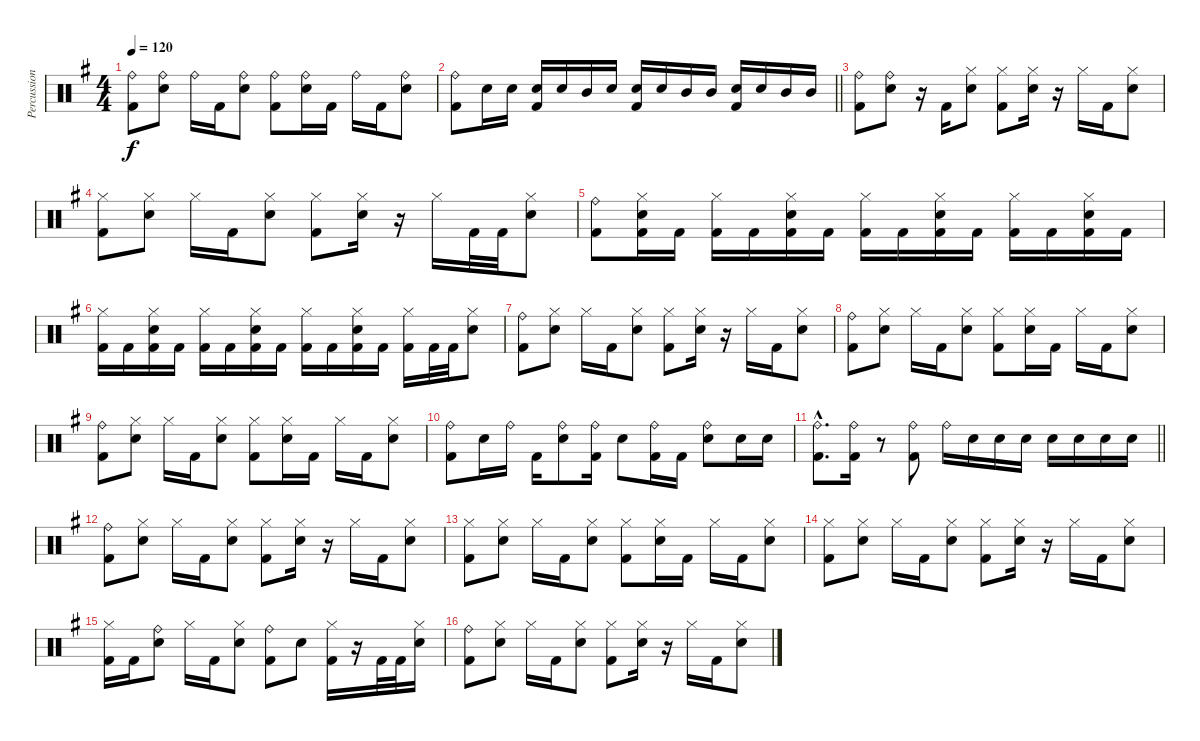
\track ("Percussion" "Percussion") {instrument percussion}
\staff {score}
\articulation defaults
\ts (4 4)
\tempo 120
\clef neutral
\ks eminor
("Ride (bell)" "Kick (hit) 2").8{dy f} ("Ride (bell)" "Snare (hit) 2").8 "Ride (bell)".16 "Kick (hit) 2".16 ("Ride (bell)" "Snare (hit) 2").8 ("Ride (bell)" "Kick (hit) 2").8 ("Ride (bell)" "Snare (hit) 2").16 "Kick (hit) 2".16 "Ride (bell)".16 "Kick (hit) 2".16 ("Ride (bell)" "Snare (hit) 2").8 |
\barLineRight lightlight
("Ride (bell)" "Kick (hit) 2").8 "Snare (hit) 2".16 "Snare (hit) 2".16 ("Snare (hit) 2" "Kick (hit) 2").16 "Snare (hit) 2".16 "Mid Tom (hit)".16 "Snare (hit) 2".16 ("Snare (hit) 2" "Kick (hit) 2").16 "Snare (hit) 2".16 "Mid Tom (hit)".16 "Mid Tom (hit)".16 ("Snare (hit) 2" "Kick (hit) 2").16 "Snare (hit) 2".16 "Mid Tom (hit)".16 "Mid Tom (hit)".16 |
("Ride (bell)" "Kick (hit) 2").8 ("Ride (bell)" "Snare (hit) 2").8 r.16 "Kick (hit) 2".16 ("Hi-Hat (closed)" "Snare (hit) 2").8 ("Hi-Hat (closed)" "Kick (hit) 2").8 ("Hi-Hat (closed)" "Snare (hit) 2").16 r.16 "Hi-Hat (closed)".16 "Kick (hit) 2".16 ("Hi-Hat (closed)" "Snare (hit) 2").8 |
("Hi-Hat (closed)" "Kick (hit) 2").8 ("Hi-Hat (closed)" "Snare (hit) 2").8 "Hi-Hat (closed)".16 "Kick (hit) 2".16 ("Hi-Hat (closed)" "Snare (hit) 2").8 ("Hi-Hat (closed)" "Kick (hit) 2").8 ("Hi-Hat (closed)" "Snare (hit) 2").16 r.16 "Hi-Hat (closed)".16 "Kick (hit) 2".32 "Kick (hit) 2".32 ("Hi-Hat (closed)" "Snare (hit) 2").8 |
("Ride (bell)" "Kick (hit) 2").8 ("Hi-Hat (closed)" "Snare (hit) 2" "Kick (hit) 2").16 "Kick (hit) 2".16 ("Hi-Hat (closed)" "Kick (hit) 2").16 "Kick (hit) 2".16 ("Hi-Hat (closed)" "Snare (hit) 2" "Kick (hit) 2").16 "Kick (hit) 2".16 ("Hi-Hat (closed)" "Kick (hit) 2").16 "Kick (hit) 2".16 ("Hi-Hat (closed)" "Snare (hit) 2" "Kick (hit) 2").16 "Kick (hit) 2".16 ("Hi-Hat (closed)" "Kick (hit) 2").16 "Kick (hit) 2".16 ("Hi-Hat (closed)" "Snare (hit) 2" "Kick (hit) 2").16 "Kick (hit) 2".16 |
("Hi-Hat (closed)" "Kick (hit) 2").16 "Kick (hit) 2".16 ("Hi-Hat (closed)" "Snare (hit) 2" "Kick (hit) 2").16 "Kick (hit) 2".16 ("Hi-Hat (closed)" "Kick (hit) 2").16 "Kick (hit) 2".16 ("Hi-Hat (closed)" "Snare (hit) 2" "Kick (hit) 2").16 "Kick (hit) 2".16 ("Hi-Hat (closed)" "Kick (hit) 2").16 "Kick (hit) 2".16 ("Hi-Hat (closed)" "Snare (hit) 2" "Kick (hit) 2").16 "Kick (hit) 2".16 ("Hi-Hat (closed)" "Kick (hit) 2").16 "Kick (hit) 2".32 "Kick (hit) 2".32 ("Hi-Hat (closed)" "Snare (hit) 2").8 |
("Ride (bell)" "Kick (hit) 2").8 ("Hi-Hat (closed)" "Snare (hit) 2").8 "Hi-Hat (closed)".16 "Kick (hit) 2".16 ("Hi-Hat (closed)" "Snare (hit) 2").8 ("Hi-Hat (closed)" "Kick (hit) 2").8 ("Hi-Hat (closed)" "Snare (hit) 2").16 r.16 "Hi-Hat (closed)".16 "Kick (hit) 2".16 ("Hi-Hat (closed)" "Snare (hit) 2").8 |
("Ride (bell)" "Kick (hit) 2").8 ("Hi-Hat (closed)" "Snare (hit) 2").8 "Hi-Hat (closed)".16 "Kick (hit) 2".16 ("Hi-Hat (closed)" "Snare (hit) 2").8 ("Hi-Hat (closed)" "Kick (hit) 2").8 ("Hi-Hat (closed)" "Snare (hit) 2").16 "Kick (hit) 2".16 "Hi-Hat (closed)".16 "Kick (hit) 2".16 ("Hi-Hat (closed)" "Snare (hit) 2").8 |
("Ride (bell)" "Kick (hit) 2").8 ("Hi-Hat (closed)" "Snare (hit) 2").8 "Hi-Hat (closed)".16 "Kick (hit) 2".16 ("Hi-Hat (closed)" "Snare (hit) 2").8 ("Hi-Hat (closed)" "Kick (hit) 2").8 ("Hi-Hat (closed)" "Snare (hit) 2").16 "Kick (hit) 2".16 "Hi-Hat (closed)".16 "Kick (hit) 2".16 ("Hi-Hat (closed)" "Snare (hit) 2").8 |
("Ride (bell)" "Kick (hit) 2").8 "Snare (hit) 2".16 "Ride (bell)".16 "Kick (hit) 2".16 ("Ride (bell)" "Snare (hit) 2").8 ("Ride (bell)" "Kick (hit) 2").16 "Snare (hit) 2".8 ("Ride (bell)" "Kick (hit) 2").16 "Kick (hit) 2".16 ("Ride (bell)" "Snare (hit) 2").8 "Snare (hit) 2".16 "Snare (hit) 2".16 |
\barLineRight lightlight
("Ride (bell)"{hac} "Kick (hit) 2"{hac}).8{d} ("Ride (bell)" "Kick (hit) 2").16 r.8 ("Ride (bell)" "Kick (hit) 2").8 "Ride (bell)".16 "Snare (hit) 2".16 "Snare (hit) 2".16 "Snare (hit) 2".16 "Snare (hit) 2".16 "Snare (hit) 2".16 "Snare (hit) 2".16 "Snare (hit) 2".16 |
("Ride (bell)" "Kick (hit) 2").8 ("Hi-Hat (closed)" "Snare (hit) 2").8 "Hi-Hat (closed)".16 "Kick (hit) 2".16 ("Hi-Hat (closed)" "Snare (hit) 2").8 ("Hi-Hat (closed)" "Kick (hit) 2").8 ("Hi-Hat (closed)" "Snare (hit) 2").16 r.16 "Hi-Hat (closed)".16 "Kick (hit) 2".16 ("Hi-Hat (closed)" "Snare (hit) 2").8 |
("Hi-Hat (closed)" "Kick (hit) 2").8 ("Hi-Hat (closed)" "Snare (hit) 2").8 "Hi-Hat (closed)".16 "Kick (hit) 2".16 ("Hi-Hat (closed)" "Snare (hit) 2").8 ("Hi-Hat (closed)" "Kick (hit) 2").8 ("Hi-Hat (closed)" "Snare (hit) 2").16 "Kick (hit) 2".16 "Hi-Hat (closed)".16 "Kick (hit) 2".16 ("Hi-Hat (closed)" "Snare (hit) 2").8 |
("Hi-Hat (closed)" "Kick (hit) 2").8 ("Hi-Hat (closed)" "Snare (hit) 2").8 "Hi-Hat (closed)".16 "Kick (hit) 2".16 ("Hi-Hat (closed)" "Snare (hit) 2").8 ("Hi-Hat (closed)" "Kick (hit) 2").8 ("Hi-Hat (closed)" "Snare (hit) 2").16 r.16 "Hi-Hat (closed)".16 "Kick (hit) 2".16 ("Hi-Hat (closed)" "Snare (hit) 2").8 |
("Hi-Hat (closed)" "Kick (hit) 2").16 "Kick (hit) 2".16 ("Ride (bell)" "Snare (hit) 2").8 "Hi-Hat (closed)".16 "Kick (hit) 2".16 ("Hi-Hat (closed)" "Snare (hit) 2").8 ("Ride (bell)" "Kick (hit) 2").8 "Snare (hit) 2".8 ("Hi-Hat (closed)" "Kick (hit) 2").16 r.16 "Kick (hit) 2".32 "Kick (hit) 2".32 ("Hi-Hat (closed)" "Snare (hit) 2").16 |
("Ride (bell)" "Kick (hit) 2").8 ("Hi-Hat (closed)" "Snare (hit) 2").8 "Hi-Hat (closed)".16 "Kick (hit) 2".16 ("Hi-Hat (closed)" "Snare (hit) 2").8 ("Hi-Hat (closed)" "Kick (hit) 2").8 ("Hi-Hat (closed)" "Snare (hit) 2").16 r.16 "Hi-Hat (closed)".16 "Kick (hit) 2".16 ("Hi-Hat (closed)" "Snare (hit) 2").8
